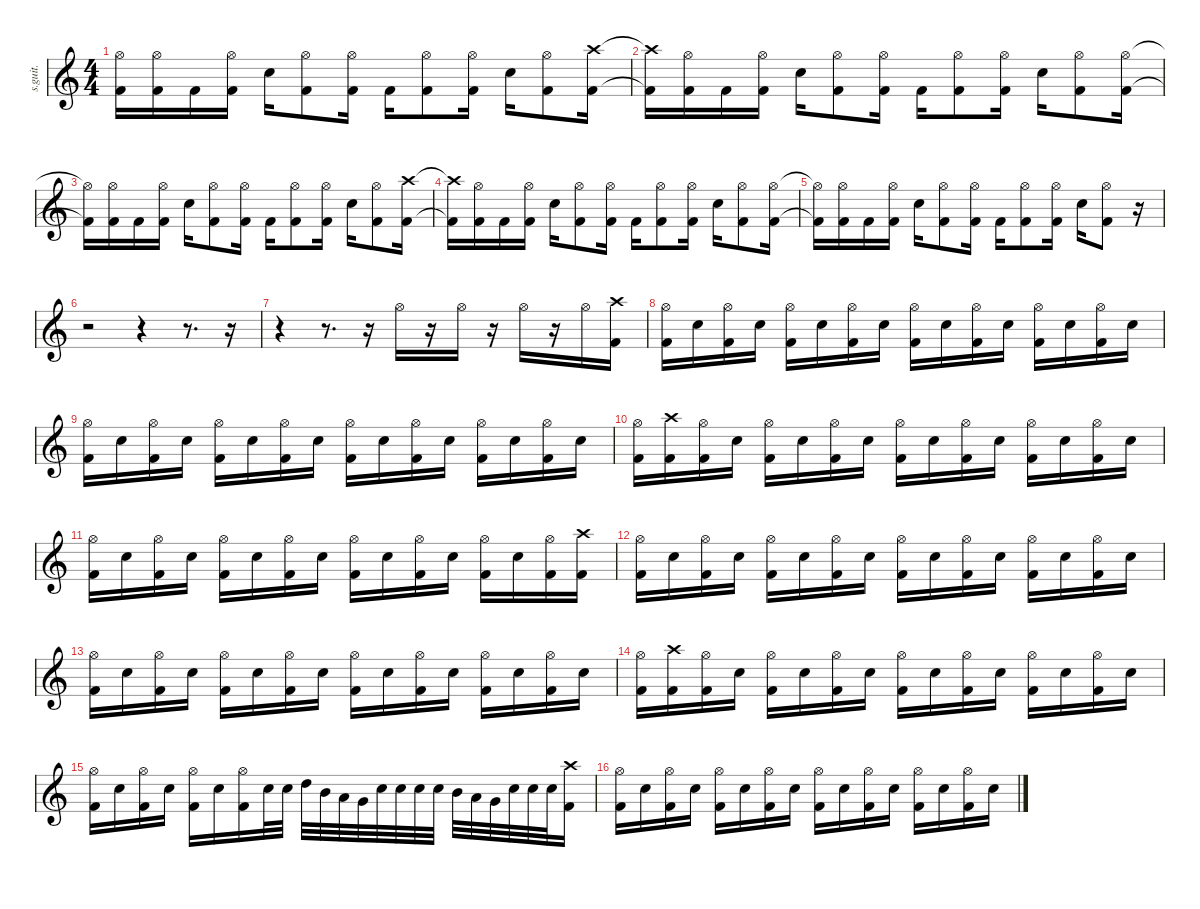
\defaultSystemsLayout 4
\hideDynamics
\bracketExtendMode nobrackets
\track ("Tomas Haake" "s.guit.") {instrument percussion}
\staff {score}
\articulation defaults
\ts (4 4)
\tempo (110 hide)
\clef g2
\ks c
("Hi-Hat (open)"{t} "Kick (hit) 2"{t}).16{lyrics (0 "") lyrics (1 "") lyrics (2 "") lyrics (3 "") lyrics (4 "") dy f} ("Hi-Hat (open)" "Kick (hit) 2").16{lyrics (0 "") lyrics (1 "") lyrics (2 "") lyrics (3 "") lyrics (4 "")} "Kick (hit) 2".16{lyrics (0 "") lyrics (1 "") lyrics (2 "") lyrics (3 "") lyrics (4 "")} ("Hi-Hat (open)" "Kick (hit) 2").16{lyrics (0 "") lyrics (1 "") lyrics (2 "") lyrics (3 "") lyrics (4 "")} "Snare (hit) 2".16{lyrics (0 "") lyrics (1 "") lyrics (2 "") lyrics (3 "") lyrics (4 "")} ("Hi-Hat (open)" "Kick (hit) 2").8{lyrics (0 "") lyrics (1 "") lyrics (2 "") lyrics (3 "") lyrics (4 "")} ("Hi-Hat (open)" "Kick (hit) 2").16{lyrics (0 "") lyrics (1 "") lyrics (2 "") lyrics (3 "") lyrics (4 "")} "Kick (hit) 2".16{lyrics (0 "") lyrics (1 "") lyrics (2 "") lyrics (3 "") lyrics (4 "")} ("Hi-Hat (open)" "Kick (hit) 2").8{lyrics (0 "") lyrics (1 "") lyrics (2 "") lyrics (3 "") lyrics (4 "")} ("Hi-Hat (open)" "Kick (hit) 2").16{lyrics (0 "") lyrics (1 "") lyrics (2 "") lyrics (3 "") lyrics (4 "")} "Snare (hit) 2".16{lyrics (0 "") lyrics (1 "") lyrics (2 "") lyrics (3 "") lyrics (4 "")} ("Hi-Hat (open)" "Kick (hit) 2").8{lyrics (0 "") lyrics (1 "") lyrics (2 "") lyrics (3 "") lyrics (4 "")} ("Crash high (hit)" "Kick (hit) 2").16{lyrics (0 "") lyrics (1 "") lyrics (2 "") lyrics (3 "") lyrics (4 "")} |
("Crash high (hit)"{t} "Kick (hit) 2"{t}).16{lyrics (0 "") lyrics (1 "") lyrics (2 "") lyrics (3 "") lyrics (4 "")} ("Hi-Hat (open)" "Kick (hit) 2").16{lyrics (0 "") lyrics (1 "") lyrics (2 "") lyrics (3 "") lyrics (4 "")} "Kick (hit) 2".16{lyrics (0 "") lyrics (1 "") lyrics (2 "") lyrics (3 "") lyrics (4 "")} ("Hi-Hat (open)" "Kick (hit) 2").16{lyrics (0 "") lyrics (1 "") lyrics (2 "") lyrics (3 "") lyrics (4 "")} "Snare (hit) 2".16{lyrics (0 "") lyrics (1 "") lyrics (2 "") lyrics (3 "") lyrics (4 "")} ("Hi-Hat (open)" "Kick (hit) 2").8{lyrics (0 "") lyrics (1 "") lyrics (2 "") lyrics (3 "") lyrics (4 "")} ("Hi-Hat (open)" "Kick (hit) 2").16{lyrics (0 "") lyrics (1 "") lyrics (2 "") lyrics (3 "") lyrics (4 "")} "Kick (hit) 2".16{lyrics (0 "") lyrics (1 "") lyrics (2 "") lyrics (3 "") lyrics (4 "")} ("Hi-Hat (open)" "Kick (hit) 2").8{lyrics (0 "") lyrics (1 "") lyrics (2 "") lyrics (3 "") lyrics (4 "")} ("Hi-Hat (open)" "Kick (hit) 2").16{lyrics (0 "") lyrics (1 "") lyrics (2 "") lyrics (3 "") lyrics (4 "")} "Snare (hit) 2".16{lyrics (0 "") lyrics (1 "") lyrics (2 "") lyrics (3 "") lyrics (4 "")} ("Hi-Hat (open)" "Kick (hit) 2").8{lyrics (0 "") lyrics (1 "") lyrics (2 "") lyrics (3 "") lyrics (4 "")} ("Hi-Hat (open)" "Kick (hit) 2").16{lyrics (0 "") lyrics (1 "") lyrics (2 "") lyrics (3 "") lyrics (4 "")} |
("Hi-Hat (open)"{t} "Kick (hit) 2"{t}).16{lyrics (0 "") lyrics (1 "") lyrics (2 "") lyrics (3 "") lyrics (4 "")} ("Hi-Hat (open)" "Kick (hit) 2").16{lyrics (0 "") lyrics (1 "") lyrics (2 "") lyrics (3 "") lyrics (4 "")} "Kick (hit) 2".16{lyrics (0 "") lyrics (1 "") lyrics (2 "") lyrics (3 "") lyrics (4 "")} ("Hi-Hat (open)" "Kick (hit) 2").16{lyrics (0 "") lyrics (1 "") lyrics (2 "") lyrics (3 "") lyrics (4 "")} "Snare (hit) 2".16{lyrics (0 "") lyrics (1 "") lyrics (2 "") lyrics (3 "") lyrics (4 "")} ("Hi-Hat (open)" "Kick (hit) 2").8{lyrics (0 "") lyrics (1 "") lyrics (2 "") lyrics (3 "") lyrics (4 "")} ("Hi-Hat (open)" "Kick (hit) 2").16{lyrics (0 "") lyrics (1 "") lyrics (2 "") lyrics (3 "") lyrics (4 "")} "Kick (hit) 2".16{lyrics (0 "") lyrics (1 "") lyrics (2 "") lyrics (3 "") lyrics (4 "")} ("Hi-Hat (open)" "Kick (hit) 2").8{lyrics (0 "") lyrics (1 "") lyrics (2 "") lyrics (3 "") lyrics (4 "")} ("Hi-Hat (open)" "Kick (hit) 2").16{lyrics (0 "") lyrics (1 "") lyrics (2 "") lyrics (3 "") lyrics (4 "")} "Snare (hit) 2".16{lyrics (0 "") lyrics (1 "") lyrics (2 "") lyrics (3 "") lyrics (4 "")} ("Hi-Hat (open)" "Kick (hit) 2").8{lyrics (0 "") lyrics (1 "") lyrics (2 "") lyrics (3 "") lyrics (4 "")} ("Crash high (hit)" "Kick (hit) 2").16{lyrics (0 "") lyrics (1 "") lyrics (2 "") lyrics (3 "") lyrics (4 "")} |
("Crash high (hit)"{t} "Kick (hit) 2"{t}).16{lyrics (0 "") lyrics (1 "") lyrics (2 "") lyrics (3 "") lyrics (4 "")} ("Hi-Hat (open)" "Kick (hit) 2").16{lyrics (0 "") lyrics (1 "") lyrics (2 "") lyrics (3 "") lyrics (4 "")} "Kick (hit) 2".16{lyrics (0 "") lyrics (1 "") lyrics (2 "") lyrics (3 "") lyrics (4 "")} ("Hi-Hat (open)" "Kick (hit) 2").16{lyrics (0 "") lyrics (1 "") lyrics (2 "") lyrics (3 "") lyrics (4 "")} "Snare (hit) 2".16{lyrics (0 "") lyrics (1 "") lyrics (2 "") lyrics (3 "") lyrics (4 "")} ("Hi-Hat (open)" "Kick (hit) 2").8{lyrics (0 "") lyrics (1 "") lyrics (2 "") lyrics (3 "") lyrics (4 "")} ("Hi-Hat (open)" "Kick (hit) 2").16{lyrics (0 "") lyrics (1 "") lyrics (2 "") lyrics (3 "") lyrics (4 "")} "Kick (hit) 2".16{lyrics (0 "") lyrics (1 "") lyrics (2 "") lyrics (3 "") lyrics (4 "")} ("Hi-Hat (open)" "Kick (hit) 2").8{lyrics (0 "") lyrics (1 "") lyrics (2 "") lyrics (3 "") lyrics (4 "")} ("Hi-Hat (open)" "Kick (hit) 2").16{lyrics (0 "") lyrics (1 "") lyrics (2 "") lyrics (3 "") lyrics (4 "")} "Snare (hit) 2".16{lyrics (0 "") lyrics (1 "") lyrics (2 "") lyrics (3 "") lyrics (4 "")} ("Hi-Hat (open)" "Kick (hit) 2").8{lyrics (0 "") lyrics (1 "") lyrics (2 "") lyrics (3 "") lyrics (4 "")} ("Hi-Hat (open)" "Kick (hit) 2").16{lyrics (0 "") lyrics (1 "") lyrics (2 "") lyrics (3 "") lyrics (4 "")} |
("Hi-Hat (open)"{t} "Kick (hit) 2"{t}).16{lyrics (0 "") lyrics (1 "") lyrics (2 "") lyrics (3 "") lyrics (4 "")} ("Hi-Hat (open)" "Kick (hit) 2").16{lyrics (0 "") lyrics (1 "") lyrics (2 "") lyrics (3 "") lyrics (4 "")} "Kick (hit) 2".16{lyrics (0 "") lyrics (1 "") lyrics (2 "") lyrics (3 "") lyrics (4 "")} ("Hi-Hat (open)" "Kick (hit) 2").16{lyrics (0 "") lyrics (1 "") lyrics (2 "") lyrics (3 "") lyrics (4 "")} "Snare (hit) 2".16{lyrics (0 "") lyrics (1 "") lyrics (2 "") lyrics (3 "") lyrics (4 "")} ("Hi-Hat (open)" "Kick (hit) 2").8{lyrics (0 "") lyrics (1 "") lyrics (2 "") lyrics (3 "") lyrics (4 "")} ("Hi-Hat (open)" "Kick (hit) 2").16{lyrics (0 "") lyrics (1 "") lyrics (2 "") lyrics (3 "") lyrics (4 "")} "Kick (hit) 2".16{lyrics (0 "") lyrics (1 "") lyrics (2 "") lyrics (3 "") lyrics (4 "")} ("Hi-Hat (open)" "Kick (hit) 2").8{lyrics (0 "") lyrics (1 "") lyrics (2 "") lyrics (3 "") lyrics (4 "")} ("Hi-Hat (open)" "Kick (hit) 2").16{lyrics (0 "") lyrics (1 "") lyrics (2 "") lyrics (3 "") lyrics (4 "")} "Snare (hit) 2".16{lyrics (0 "") lyrics (1 "") lyrics (2 "") lyrics (3 "") lyrics (4 "")} ("Hi-Hat (open)" "Kick (hit) 2").8{lyrics (0 "") lyrics (1 "") lyrics (2 "") lyrics (3 "") lyrics (4 "")} r.16 |
r.2 r.4 r.8{d} r.16 |
r.4 r.8{d} r.16 "Hi-Hat (open)".16{lyrics (0 "") lyrics (1 "") lyrics (2 "") lyrics (3 "") lyrics (4 "")} r.16 "Hi-Hat (open)".16{lyrics (0 "") lyrics (1 "") lyrics (2 "") lyrics (3 "") lyrics (4 "")} r.16 "Hi-Hat (open)".16{lyrics (0 "") lyrics (1 "") lyrics (2 "") lyrics (3 "") lyrics (4 "")} r.16 "Hi-Hat (open)".16{lyrics (0 "") lyrics (1 "") lyrics (2 "") lyrics (3 "") lyrics (4 "")} ("Crash high (hit)" "Kick (hit) 2").16{lyrics (0 "") lyrics (1 "") lyrics (2 "") lyrics (3 "") lyrics (4 "")} |
("Hi-Hat (open)" "Kick (hit) 2").16{lyrics (0 "") lyrics (1 "") lyrics (2 "") lyrics (3 "") lyrics (4 "")} "Snare (hit) 2".16{lyrics (0 "") lyrics (1 "") lyrics (2 "") lyrics (3 "") lyrics (4 "")} ("Hi-Hat (open)" "Kick (hit) 2").16{lyrics (0 "") lyrics (1 "") lyrics (2 "") lyrics (3 "") lyrics (4 "")} "Snare (hit) 2".16{lyrics (0 "") lyrics (1 "") lyrics (2 "") lyrics (3 "") lyrics (4 "")} ("Hi-Hat (open)" "Kick (hit) 2").16{lyrics (0 "") lyrics (1 "") lyrics (2 "") lyrics (3 "") lyrics (4 "")} "Snare (hit) 2".16{lyrics (0 "") lyrics (1 "") lyrics (2 "") lyrics (3 "") lyrics (4 "")} ("Hi-Hat (open)" "Kick (hit) 2").16{lyrics (0 "") lyrics (1 "") lyrics (2 "") lyrics (3 "") lyrics (4 "")} "Snare (hit) 2".16{lyrics (0 "") lyrics (1 "") lyrics (2 "") lyrics (3 "") lyrics (4 "")} ("Hi-Hat (open)" "Kick (hit) 2").16{lyrics (0 "") lyrics (1 "") lyrics (2 "") lyrics (3 "") lyrics (4 "")} "Snare (hit) 2".16{lyrics (0 "") lyrics (1 "") lyrics (2 "") lyrics (3 "") lyrics (4 "")} ("Hi-Hat (open)" "Kick (hit) 2").16{lyrics (0 "") lyrics (1 "") lyrics (2 "") lyrics (3 "") lyrics (4 "")} "Snare (hit) 2".16{lyrics (0 "") lyrics (1 "") lyrics (2 "") lyrics (3 "") lyrics (4 "")} ("Hi-Hat (open)" "Kick (hit) 2").16{lyrics (0 "") lyrics (1 "") lyrics (2 "") lyrics (3 "") lyrics (4 "")} "Snare (hit) 2".16{lyrics (0 "") lyrics (1 "") lyrics (2 "") lyrics (3 "") lyrics (4 "")} ("Hi-Hat (open)" "Kick (hit) 2").16{lyrics (0 "") lyrics (1 "") lyrics (2 "") lyrics (3 "") lyrics (4 "")} "Snare (hit) 2".16{lyrics (0 "") lyrics (1 "") lyrics (2 "") lyrics (3 "") lyrics (4 "")} |
("Hi-Hat (open)" "Kick (hit) 2").16{lyrics (0 "") lyrics (1 "") lyrics (2 "") lyrics (3 "") lyrics (4 "")} "Snare (hit) 2".16{lyrics (0 "") lyrics (1 "") lyrics (2 "") lyrics (3 "") lyrics (4 "")} ("Hi-Hat (open)" "Kick (hit) 2").16{lyrics (0 "") lyrics (1 "") lyrics (2 "") lyrics (3 "") lyrics (4 "")} "Snare (hit) 2".16{lyrics (0 "") lyrics (1 "") lyrics (2 "") lyrics (3 "") lyrics (4 "")} ("Hi-Hat (open)" "Kick (hit) 2").16{lyrics (0 "") lyrics (1 "") lyrics (2 "") lyrics (3 "") lyrics (4 "")} "Snare (hit) 2".16{lyrics (0 "") lyrics (1 "") lyrics (2 "") lyrics (3 "") lyrics (4 "")} ("Hi-Hat (open)" "Kick (hit) 2").16{lyrics (0 "") lyrics (1 "") lyrics (2 "") lyrics (3 "") lyrics (4 "")} "Snare (hit) 2".16{lyrics (0 "") lyrics (1 "") lyrics (2 "") lyrics (3 "") lyrics (4 "")} ("Hi-Hat (open)" "Kick (hit) 2").16{lyrics (0 "") lyrics (1 "") lyrics (2 "") lyrics (3 "") lyrics (4 "")} "Snare (hit) 2".16{lyrics (0 "") lyrics (1 "") lyrics (2 "") lyrics (3 "") lyrics (4 "")} ("Hi-Hat (open)" "Kick (hit) 2").16{lyrics (0 "") lyrics (1 "") lyrics (2 "") lyrics (3 "") lyrics (4 "")} "Snare (hit) 2".16{lyrics (0 "") lyrics (1 "") lyrics (2 "") lyrics (3 "") lyrics (4 "")} ("Hi-Hat (open)" "Kick (hit) 2").16{lyrics (0 "") lyrics (1 "") lyrics (2 "") lyrics (3 "") lyrics (4 "")} "Snare (hit) 2".16{lyrics (0 "") lyrics (1 "") lyrics (2 "") lyrics (3 "") lyrics (4 "")} ("Hi-Hat (open)" "Kick (hit) 2").16{lyrics (0 "") lyrics (1 "") lyrics (2 "") lyrics (3 "") lyrics (4 "")} "Snare (hit) 2".16{lyrics (0 "") lyrics (1 "") lyrics (2 "") lyrics (3 "") lyrics (4 "")} |
("Hi-Hat (open)" "Kick (hit) 2").16{lyrics (0 "") lyrics (1 "") lyrics (2 "") lyrics (3 "") lyrics (4 "")} ("Crash high (hit)" "Kick (hit) 2").16{lyrics (0 "") lyrics (1 "") lyrics (2 "") lyrics (3 "") lyrics (4 "")} ("Hi-Hat (open)" "Kick (hit) 2").16{lyrics (0 "") lyrics (1 "") lyrics (2 "") lyrics (3 "") lyrics (4 "")} "Snare (hit) 2".16{lyrics (0 "") lyrics (1 "") lyrics (2 "") lyrics (3 "") lyrics (4 "")} ("Hi-Hat (open)" "Kick (hit) 2").16{lyrics (0 "") lyrics (1 "") lyrics (2 "") lyrics (3 "") lyrics (4 "")} "Snare (hit) 2".16{lyrics (0 "") lyrics (1 "") lyrics (2 "") lyrics (3 "") lyrics (4 "")} ("Hi-Hat (open)" "Kick (hit) 2").16{lyrics (0 "") lyrics (1 "") lyrics (2 "") lyrics (3 "") lyrics (4 "")} "Snare (hit) 2".16{lyrics (0 "") lyrics (1 "") lyrics (2 "") lyrics (3 "") lyrics (4 "")} ("Hi-Hat (open)" "Kick (hit) 2").16{lyrics (0 "") lyrics (1 "") lyrics (2 "") lyrics (3 "") lyrics (4 "")} "Snare (hit) 2".16{lyrics (0 "") lyrics (1 "") lyrics (2 "") lyrics (3 "") lyrics (4 "")} ("Hi-Hat (open)" "Kick (hit) 2").16{lyrics (0 "") lyrics (1 "") lyrics (2 "") lyrics (3 "") lyrics (4 "")} "Snare (hit) 2".16{lyrics (0 "") lyrics (1 "") lyrics (2 "") lyrics (3 "") lyrics (4 "")} ("Hi-Hat (open)" "Kick (hit) 2").16{lyrics (0 "") lyrics (1 "") lyrics (2 "") lyrics (3 "") lyrics (4 "")} "Snare (hit) 2".16{lyrics (0 "") lyrics (1 "") lyrics (2 "") lyrics (3 "") lyrics (4 "")} ("Hi-Hat (open)" "Kick (hit) 2").16{lyrics (0 "") lyrics (1 "") lyrics (2 "") lyrics (3 "") lyrics (4 "")} "Snare (hit) 2".16{lyrics (0 "") lyrics (1 "") lyrics (2 "") lyrics (3 "") lyrics (4 "")} |
("Hi-Hat (open)" "Kick (hit) 2").16{lyrics (0 "") lyrics (1 "") lyrics (2 "") lyrics (3 "") lyrics (4 "")} "Snare (hit) 2".16{lyrics (0 "") lyrics (1 "") lyrics (2 "") lyrics (3 "") lyrics (4 "")} ("Hi-Hat (open)" "Kick (hit) 2").16{lyrics (0 "") lyrics (1 "") lyrics (2 "") lyrics (3 "") lyrics (4 "")} "Snare (hit) 2".16{lyrics (0 "") lyrics (1 "") lyrics (2 "") lyrics (3 "") lyrics (4 "")} ("Hi-Hat (open)" "Kick (hit) 2").16{lyrics (0 "") lyrics (1 "") lyrics (2 "") lyrics (3 "") lyrics (4 "")} "Snare (hit) 2".16{lyrics (0 "") lyrics (1 "") lyrics (2 "") lyrics (3 "") lyrics (4 "")} ("Hi-Hat (open)" "Kick (hit) 2").16{lyrics (0 "") lyrics (1 "") lyrics (2 "") lyrics (3 "") lyrics (4 "")} "Snare (hit) 2".16{lyrics (0 "") lyrics (1 "") lyrics (2 "") lyrics (3 "") lyrics (4 "")} ("Hi-Hat (open)" "Kick (hit) 2").16{lyrics (0 "") lyrics (1 "") lyrics (2 "") lyrics (3 "") lyrics (4 "")} "Snare (hit) 2".16{lyrics (0 "") lyrics (1 "") lyrics (2 "") lyrics (3 "") lyrics (4 "")} ("Hi-Hat (open)" "Kick (hit) 2").16{lyrics (0 "") lyrics (1 "") lyrics (2 "") lyrics (3 "") lyrics (4 "")} "Snare (hit) 2".16{lyrics (0 "") lyrics (1 "") lyrics (2 "") lyrics (3 "") lyrics (4 "")} ("Hi-Hat (open)" "Kick (hit) 2").16{lyrics (0 "") lyrics (1 "") lyrics (2 "") lyrics (3 "") lyrics (4 "")} "Snare (hit) 2".16{lyrics (0 "") lyrics (1 "") lyrics (2 "") lyrics (3 "") lyrics (4 "")} ("Hi-Hat (open)" "Kick (hit) 2").16{lyrics (0 "") lyrics (1 "") lyrics (2 "") lyrics (3 "") lyrics (4 "")} ("Crash high (hit)" "Kick (hit) 2").16{lyrics (0 "") lyrics (1 "") lyrics (2 "") lyrics (3 "") lyrics (4 "")} |
("Hi-Hat (open)" "Kick (hit) 2").16{lyrics (0 "") lyrics (1 "") lyrics (2 "") lyrics (3 "") lyrics (4 "")} "Snare (hit) 2".16{lyrics (0 "") lyrics (1 "") lyrics (2 "") lyrics (3 "") lyrics (4 "")} ("Hi-Hat (open)" "Kick (hit) 2").16{lyrics (0 "") lyrics (1 "") lyrics (2 "") lyrics (3 "") lyrics (4 "")} "Snare (hit) 2".16{lyrics (0 "") lyrics (1 "") lyrics (2 "") lyrics (3 "") lyrics (4 "")} ("Hi-Hat (open)" "Kick (hit) 2").16{lyrics (0 "") lyrics (1 "") lyrics (2 "") lyrics (3 "") lyrics (4 "")} "Snare (hit) 2".16{lyrics (0 "") lyrics (1 "") lyrics (2 "") lyrics (3 "") lyrics (4 "")} ("Hi-Hat (open)" "Kick (hit) 2").16{lyrics (0 "") lyrics (1 "") lyrics (2 "") lyrics (3 "") lyrics (4 "")} "Snare (hit) 2".16{lyrics (0 "") lyrics (1 "") lyrics (2 "") lyrics (3 "") lyrics (4 "")} ("Hi-Hat (open)" "Kick (hit) 2").16{lyrics (0 "") lyrics (1 "") lyrics (2 "") lyrics (3 "") lyrics (4 "")} "Snare (hit) 2".16{lyrics (0 "") lyrics (1 "") lyrics (2 "") lyrics (3 "") lyrics (4 "")} ("Hi-Hat (open)" "Kick (hit) 2").16{lyrics (0 "") lyrics (1 "") lyrics (2 "") lyrics (3 "") lyrics (4 "")} "Snare (hit) 2".16{lyrics (0 "") lyrics (1 "") lyrics (2 "") lyrics (3 "") lyrics (4 "")} ("Hi-Hat (open)" "Kick (hit) 2").16{lyrics (0 "") lyrics (1 "") lyrics (2 "") lyrics (3 "") lyrics (4 "")} "Snare (hit) 2".16{lyrics (0 "") lyrics (1 "") lyrics (2 "") lyrics (3 "") lyrics (4 "")} ("Hi-Hat (open)" "Kick (hit) 2").16{lyrics (0 "") lyrics (1 "") lyrics (2 "") lyrics (3 "") lyrics (4 "")} "Snare (hit) 2".16{lyrics (0 "") lyrics (1 "") lyrics (2 "") lyrics (3 "") lyrics (4 "")} |
("Hi-Hat (open)" "Kick (hit) 2").16{lyrics (0 "") lyrics (1 "") lyrics (2 "") lyrics (3 "") lyrics (4 "")} "Snare (hit) 2".16{lyrics (0 "") lyrics (1 "") lyrics (2 "") lyrics (3 "") lyrics (4 "")} ("Hi-Hat (open)" "Kick (hit) 2").16{lyrics (0 "") lyrics (1 "") lyrics (2 "") lyrics (3 "") lyrics (4 "")} "Snare (hit) 2".16{lyrics (0 "") lyrics (1 "") lyrics (2 "") lyrics (3 "") lyrics (4 "")} ("Hi-Hat (open)" "Kick (hit) 2").16{lyrics (0 "") lyrics (1 "") lyrics (2 "") lyrics (3 "") lyrics (4 "")} "Snare (hit) 2".16{lyrics (0 "") lyrics (1 "") lyrics (2 "") lyrics (3 "") lyrics (4 "")} ("Hi-Hat (open)" "Kick (hit) 2").16{lyrics (0 "") lyrics (1 "") lyrics (2 "") lyrics (3 "") lyrics (4 "")} "Snare (hit) 2".16{lyrics (0 "") lyrics (1 "") lyrics (2 "") lyrics (3 "") lyrics (4 "")} ("Hi-Hat (open)" "Kick (hit) 2").16{lyrics (0 "") lyrics (1 "") lyrics (2 "") lyrics (3 "") lyrics (4 "")} "Snare (hit) 2".16{lyrics (0 "") lyrics (1 "") lyrics (2 "") lyrics (3 "") lyrics (4 "")} ("Hi-Hat (open)" "Kick (hit) 2").16{lyrics (0 "") lyrics (1 "") lyrics (2 "") lyrics (3 "") lyrics (4 "")} "Snare (hit) 2".16{lyrics (0 "") lyrics (1 "") lyrics (2 "") lyrics (3 "") lyrics (4 "")} ("Hi-Hat (open)" "Kick (hit) 2").16{lyrics (0 "") lyrics (1 "") lyrics (2 "") lyrics (3 "") lyrics (4 "")} "Snare (hit) 2".16{lyrics (0 "") lyrics (1 "") lyrics (2 "") lyrics (3 "") lyrics (4 "")} ("Hi-Hat (open)" "Kick (hit) 2").16{lyrics (0 "") lyrics (1 "") lyrics (2 "") lyrics (3 "") lyrics (4 "")} "Snare (hit) 2".16{lyrics (0 "") lyrics (1 "") lyrics (2 "") lyrics (3 "") lyrics (4 "")} |
("Hi-Hat (open)" "Kick (hit) 2").16{lyrics (0 "") lyrics (1 "") lyrics (2 "") lyrics (3 "") lyrics (4 "")} ("Crash high (hit)" "Kick (hit) 2").16{lyrics (0 "") lyrics (1 "") lyrics (2 "") lyrics (3 "") lyrics (4 "")} ("Hi-Hat (open)" "Kick (hit) 2").16{lyrics (0 "") lyrics (1 "") lyrics (2 "") lyrics (3 "") lyrics (4 "")} "Snare (hit) 2".16{lyrics (0 "") lyrics (1 "") lyrics (2 "") lyrics (3 "") lyrics (4 "")} ("Hi-Hat (open)" "Kick (hit) 2").16{lyrics (0 "") lyrics (1 "") lyrics (2 "") lyrics (3 "") lyrics (4 "")} "Snare (hit) 2".16{lyrics (0 "") lyrics (1 "") lyrics (2 "") lyrics (3 "") lyrics (4 "")} ("Hi-Hat (open)" "Kick (hit) 2").16{lyrics (0 "") lyrics (1 "") lyrics (2 "") lyrics (3 "") lyrics (4 "")} "Snare (hit) 2".16{lyrics (0 "") lyrics (1 "") lyrics (2 "") lyrics (3 "") lyrics (4 "")} ("Hi-Hat (open)" "Kick (hit) 2").16{lyrics (0 "") lyrics (1 "") lyrics (2 "") lyrics (3 "") lyrics (4 "")} "Snare (hit) 2".16{lyrics (0 "") lyrics (1 "") lyrics (2 "") lyrics (3 "") lyrics (4 "")} ("Hi-Hat (open)" "Kick (hit) 2").16{lyrics (0 "") lyrics (1 "") lyrics (2 "") lyrics (3 "") lyrics (4 "")} "Snare (hit) 2".16{lyrics (0 "") lyrics (1 "") lyrics (2 "") lyrics (3 "") lyrics (4 "")} ("Hi-Hat (open)" "Kick (hit) 2").16{lyrics (0 "") lyrics (1 "") lyrics (2 "") lyrics (3 "") lyrics (4 "")} "Snare (hit) 2".16{lyrics (0 "") lyrics (1 "") lyrics (2 "") lyrics (3 "") lyrics (4 "")} ("Hi-Hat (open)" "Kick (hit) 2").16{lyrics (0 "") lyrics (1 "") lyrics (2 "") lyrics (3 "") lyrics (4 "")} "Snare (hit) 2".16{lyrics (0 "") lyrics (1 "") lyrics (2 "") lyrics (3 "") lyrics (4 "")} |
("Hi-Hat (open)" "Kick (hit) 2").16{lyrics (0 "") lyrics (1 "") lyrics (2 "") lyrics (3 "") lyrics (4 "")} "Snare (hit) 2".16{lyrics (0 "") lyrics (1 "") lyrics (2 "") lyrics (3 "") lyrics (4 "")} ("Hi-Hat (open)" "Kick (hit) 2").16{lyrics (0 "") lyrics (1 "") lyrics (2 "") lyrics (3 "") lyrics (4 "")} "Snare (hit) 2".16{lyrics (0 "") lyrics (1 "") lyrics (2 "") lyrics (3 "") lyrics (4 "")} ("Hi-Hat (open)" "Kick (hit) 2").16{lyrics (0 "") lyrics (1 "") lyrics (2 "") lyrics (3 "") lyrics (4 "")} "Snare (hit) 2".16{lyrics (0 "") lyrics (1 "") lyrics (2 "") lyrics (3 "") lyrics (4 "")} ("Hi-Hat (open)" "Kick (hit) 2").16{lyrics (0 "") lyrics (1 "") lyrics (2 "") lyrics (3 "") lyrics (4 "")} "Snare (hit) 2".32{lyrics (0 "") lyrics (1 "") lyrics (2 "") lyrics (3 "") lyrics (4 "")} "Snare (hit) 2".32{lyrics (0 "") lyrics (1 "") lyrics (2 "") lyrics (3 "") lyrics (4 "")} "High Tom (hit)".32{lyrics (0 "") lyrics (1 "") lyrics (2 "") lyrics (3 "") lyrics (4 "")} "Mid Tom (hit)".32{lyrics (0 "") lyrics (1 "") lyrics (2 "") lyrics (3 "") lyrics (4 "")} "Low Tom (hit)".32{lyrics (0 "") lyrics (1 "") lyrics (2 "") lyrics (3 "") lyrics (4 "")} "Very Low Tom (hit)".32{lyrics (0 "") lyrics (1 "") lyrics (2 "") lyrics (3 "") lyrics (4 "")} "Snare (hit) 2".32{lyrics (0 "") lyrics (1 "") lyrics (2 "") lyrics (3 "") lyrics (4 "")} "Snare (hit) 2".32{lyrics (0 "") lyrics (1 "") lyrics (2 "") lyrics (3 "") lyrics (4 "")} "Snare (hit) 2".32{lyrics (0 "") lyrics (1 "") lyrics (2 "") lyrics (3 "") lyrics (4 "")} "Snare (hit) 2".32{lyrics (0 "") lyrics (1 "") lyrics (2 "") lyrics (3 "") lyrics (4 "")} "Mid Tom (hit)".32{lyrics (0 "") lyrics (1 "") lyrics (2 "") lyrics (3 "") lyrics (4 "")} "Low Tom (hit)".32{lyrics (0 "") lyrics (1 "") lyrics (2 "") lyrics (3 "") lyrics (4 "")} "Very Low Tom (hit)".32{lyrics (0 "") lyrics (1 "") lyrics (2 "") lyrics (3 "") lyrics (4 "")} "Snare (hit) 2".32{lyrics (0 "") lyrics (1 "") lyrics (2 "") lyrics (3 "") lyrics (4 "")} "Snare (hit) 2".32{lyrics (0 "") lyrics (1 "") lyrics (2 "") lyrics (3 "") lyrics (4 "")} "Snare (hit) 2".32{lyrics (0 "") lyrics (1 "") lyrics (2 "") lyrics (3 "") lyrics (4 "")} ("Crash high (hit)" "Kick (hit) 2").16{lyrics (0 "") lyrics (1 "") lyrics (2 "") lyrics (3 "") lyrics (4 "")} |
("Hi-Hat (open)" "Kick (hit) 2").16{lyrics (0 "") lyrics (1 "") lyrics (2 "") lyrics (3 "") lyrics (4 "")} "Snare (hit) 2".16{lyrics (0 "") lyrics (1 "") lyrics (2 "") lyrics (3 "") lyrics (4 "")} ("Hi-Hat (open)" "Kick (hit) 2").16{lyrics (0 "") lyrics (1 "") lyrics (2 "") lyrics (3 "") lyrics (4 "")} "Snare (hit) 2".16{lyrics (0 "") lyrics (1 "") lyrics (2 "") lyrics (3 "") lyrics (4 "")} ("Hi-Hat (open)" "Kick (hit) 2").16{lyrics (0 "") lyrics (1 "") lyrics (2 "") lyrics (3 "") lyrics (4 "")} "Snare (hit) 2".16{lyrics (0 "") lyrics (1 "") lyrics (2 "") lyrics (3 "") lyrics (4 "")} ("Hi-Hat (open)" "Kick (hit) 2").16{lyrics (0 "") lyrics (1 "") lyrics (2 "") lyrics (3 "") lyrics (4 "")} "Snare (hit) 2".16{lyrics (0 "") lyrics (1 "") lyrics (2 "") lyrics (3 "") lyrics (4 "")} ("Hi-Hat (open)" "Kick (hit) 2").16{lyrics (0 "") lyrics (1 "") lyrics (2 "") lyrics (3 "") lyrics (4 "")} "Snare (hit) 2".16{lyrics (0 "") lyrics (1 "") lyrics (2 "") lyrics (3 "") lyrics (4 "")} ("Hi-Hat (open)" "Kick (hit) 2").16{lyrics (0 "") lyrics (1 "") lyrics (2 "") lyrics (3 "") lyrics (4 "")} "Snare (hit) 2".16{lyrics (0 "") lyrics (1 "") lyrics (2 "") lyrics (3 "") lyrics (4 "")} ("Hi-Hat (open)" "Kick (hit) 2").16{lyrics (0 "") lyrics (1 "") lyrics (2 "") lyrics (3 "") lyrics (4 "")} "Snare (hit) 2".16{lyrics (0 "") lyrics (1 "") lyrics (2 "") lyrics (3 "") lyrics (4 "")} ("Hi-Hat (open)" "Kick (hit) 2").16{lyrics (0 "") lyrics (1 "") lyrics (2 "") lyrics (3 "") lyrics (4 "")} "Snare (hit) 2".16{lyrics (0 "") lyrics (1 "") lyrics (2 "") lyrics (3 "") lyrics (4 "")}
